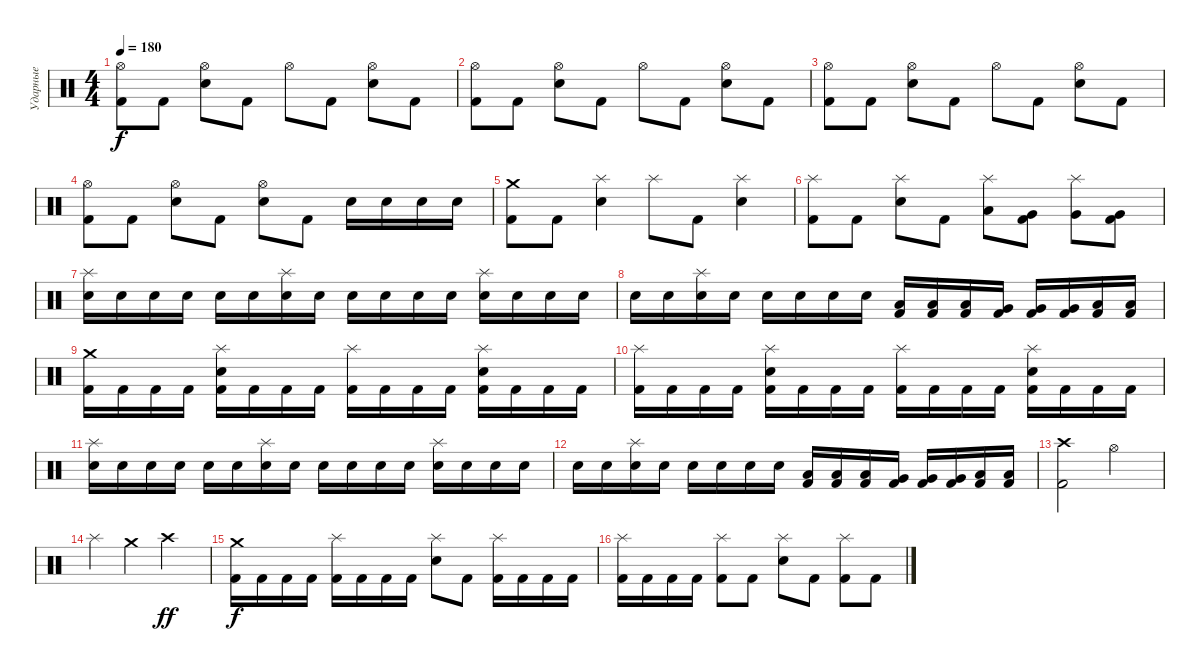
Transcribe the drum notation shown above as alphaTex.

\track ("Ударные" "Ударные") {instrument percussion bank 127}
\staff {score}
\articulation defaults
\ts (4 4)
\tempo 180
\clef neutral
\ks c
("Hi-Hat (open)" "Kick (hit) 2").8{dy f} "Kick (hit) 2".8 ("Hi-Hat (open)" "Snare (hit) 2").8 "Kick (hit) 2".8 "Hi-Hat (open)".8 "Kick (hit) 2".8 ("Hi-Hat (open)" "Snare (hit) 2").8 "Kick (hit) 2".8 |
("Hi-Hat (open)" "Kick (hit) 2").8 "Kick (hit) 2".8 ("Hi-Hat (open)" "Snare (hit) 2").8 "Kick (hit) 2".8 "Hi-Hat (open)".8 "Kick (hit) 2".8 ("Hi-Hat (open)" "Snare (hit) 2").8 "Kick (hit) 2".8 |
("Hi-Hat (open)" "Kick (hit) 2").8 "Kick (hit) 2".8 ("Hi-Hat (open)" "Snare (hit) 2").8 "Kick (hit) 2".8 "Hi-Hat (open)".8 "Kick (hit) 2".8 ("Hi-Hat (open)" "Snare (hit) 2").8 "Kick (hit) 2".8 |
("Hi-Hat (open)" "Kick (hit) 2").8 "Kick (hit) 2".8 ("Hi-Hat (open)" "Snare (hit) 2").8 "Kick (hit) 2".8 ("Hi-Hat (open)" "Snare (hit) 2").8 "Kick (hit) 2".8 "Snare (hit) 2".16 "Snare (hit) 2".16 "Snare (hit) 2".16 "Snare (hit) 2".16 |
("Crash medium (hit)" "Kick (hit) 2").8 "Kick (hit) 2".8 ("Splash (hit)" "Snare (hit) 2").4 "Splash (hit)".8 "Kick (hit) 2".8 ("Splash (hit)" "Snare (hit) 2").4 |
("Splash (hit)" "Kick (hit) 2").8 "Kick (hit) 2".8 ("Splash (hit)" "Snare (hit) 2").8 "Kick (hit) 2".8 ("Splash (hit)" "Low Tom (hit)").8 ("Very Low Tom (hit)" "Kick (hit) 2").8 ("Splash (hit)" "Very Low Tom (hit)").8 ("Very Low Tom (hit)" "Kick (hit) 2").8 |
("Splash (hit)" "Snare (hit) 2").16 "Snare (hit) 2".16 "Snare (hit) 2".16 "Snare (hit) 2".16 "Snare (hit) 2".16 "Snare (hit) 2".16 ("Splash (hit)" "Snare (hit) 2").16 "Snare (hit) 2".16 "Snare (hit) 2".16 "Snare (hit) 2".16 "Snare (hit) 2".16 "Snare (hit) 2".16 ("Splash (hit)" "Snare (hit) 2").16 "Snare (hit) 2".16 "Snare (hit) 2".16 "Snare (hit) 2".16 |
"Snare (hit) 2".16 "Snare (hit) 2".16 ("Splash (hit)" "Snare (hit) 2").16 "Snare (hit) 2".16 "Snare (hit) 2".16 "Snare (hit) 2".16 "Snare (hit) 2".16 "Snare (hit) 2".16 ("Kick (hit) 2" "Low Tom (hit)").16 ("Kick (hit) 2" "Low Tom (hit)").16 ("Kick (hit) 2" "Low Tom (hit)").16 ("Kick (hit) 2" "Very Low Tom (hit)").16 ("Kick (hit) 2" "Very Low Tom (hit)").16 ("Kick (hit) 2" "Very Low Tom (hit)").16 ("Kick (hit) 2" "Low Floor Tom (hit)").16 ("Kick (hit) 2" "Low Floor Tom (hit)").16 |
("Crash medium (hit)" "Kick (hit) 2").16 "Kick (hit) 2".16 "Kick (hit) 2".16 "Kick (hit) 2".16 ("Snare (hit) 2" "Splash (hit)" "Kick (hit) 2").16 "Kick (hit) 2".16 "Kick (hit) 2".16 "Kick (hit) 2".16 ("Splash (hit)" "Kick (hit) 2").16 "Kick (hit) 2".16 "Kick (hit) 2".16 "Kick (hit) 2".16 ("Snare (hit) 2" "Splash (hit)" "Kick (hit) 2").16 "Kick (hit) 2".16 "Kick (hit) 2".16 "Kick (hit) 2".16 |
("Splash (hit)" "Kick (hit) 2").16 "Kick (hit) 2".16 "Kick (hit) 2".16 "Kick (hit) 2".16 ("Snare (hit) 2" "Splash (hit)" "Kick (hit) 2").16 "Kick (hit) 2".16 "Kick (hit) 2".16 "Kick (hit) 2".16 ("Splash (hit)" "Kick (hit) 2").16 "Kick (hit) 2".16 "Kick (hit) 2".16 "Kick (hit) 2".16 ("Snare (hit) 2" "Splash (hit)" "Kick (hit) 2").16 "Kick (hit) 2".16 "Kick (hit) 2".16 "Kick (hit) 2".16 |
("Splash (hit)" "Snare (hit) 2").16 "Snare (hit) 2".16 "Snare (hit) 2".16 "Snare (hit) 2".16 "Snare (hit) 2".16 "Snare (hit) 2".16 ("Splash (hit)" "Snare (hit) 2").16 "Snare (hit) 2".16 "Snare (hit) 2".16 "Snare (hit) 2".16 "Snare (hit) 2".16 "Snare (hit) 2".16 ("Splash (hit)" "Snare (hit) 2").16 "Snare (hit) 2".16 "Snare (hit) 2".16 "Snare (hit) 2".16 |
"Snare (hit) 2".16 "Snare (hit) 2".16 ("Splash (hit)" "Snare (hit) 2").16 "Snare (hit) 2".16 "Snare (hit) 2".16 "Snare (hit) 2".16 "Snare (hit) 2".16 "Snare (hit) 2".16 ("Kick (hit) 2" "Low Tom (hit)").16 ("Kick (hit) 2" "Low Tom (hit)").16 ("Kick (hit) 2" "Low Tom (hit)").16 ("Kick (hit) 2" "Very Low Tom (hit)").16 ("Kick (hit) 2" "Very Low Tom (hit)").16 ("Kick (hit) 2" "Very Low Tom (hit)").16 ("Kick (hit) 2" "Low Floor Tom (hit)").16 ("Kick (hit) 2" "Low Floor Tom (hit)").16 |
("Crash high (hit)" "Kick (hit) 2").2 "Hi-Hat (open)".2 |
"Splash (hit)".4 "Crash medium (hit)".4 "Crash high (hit)".2{dy ff} |
("Crash medium (hit)" "Kick (hit) 2").16{dy f} "Kick (hit) 2".16 "Kick (hit) 2".16 "Kick (hit) 2".16 ("Splash (hit)" "Kick (hit) 2").16 "Kick (hit) 2".16 "Kick (hit) 2".16 "Kick (hit) 2".16 ("Splash (hit)" "Snare (hit) 2").8 "Kick (hit) 2".8 ("Splash (hit)" "Kick (hit) 2").16 "Kick (hit) 2".16 "Kick (hit) 2".16 "Kick (hit) 2".16 |
("Splash (hit)" "Kick (hit) 2").16 "Kick (hit) 2".16 "Kick (hit) 2".16 "Kick (hit) 2".16 ("Splash (hit)" "Kick (hit) 2").8 "Kick (hit) 2".8 ("Splash (hit)" "Snare (hit) 2").8 "Kick (hit) 2".8 ("Splash (hit)" "Kick (hit) 2").8 "Kick (hit) 2".8
